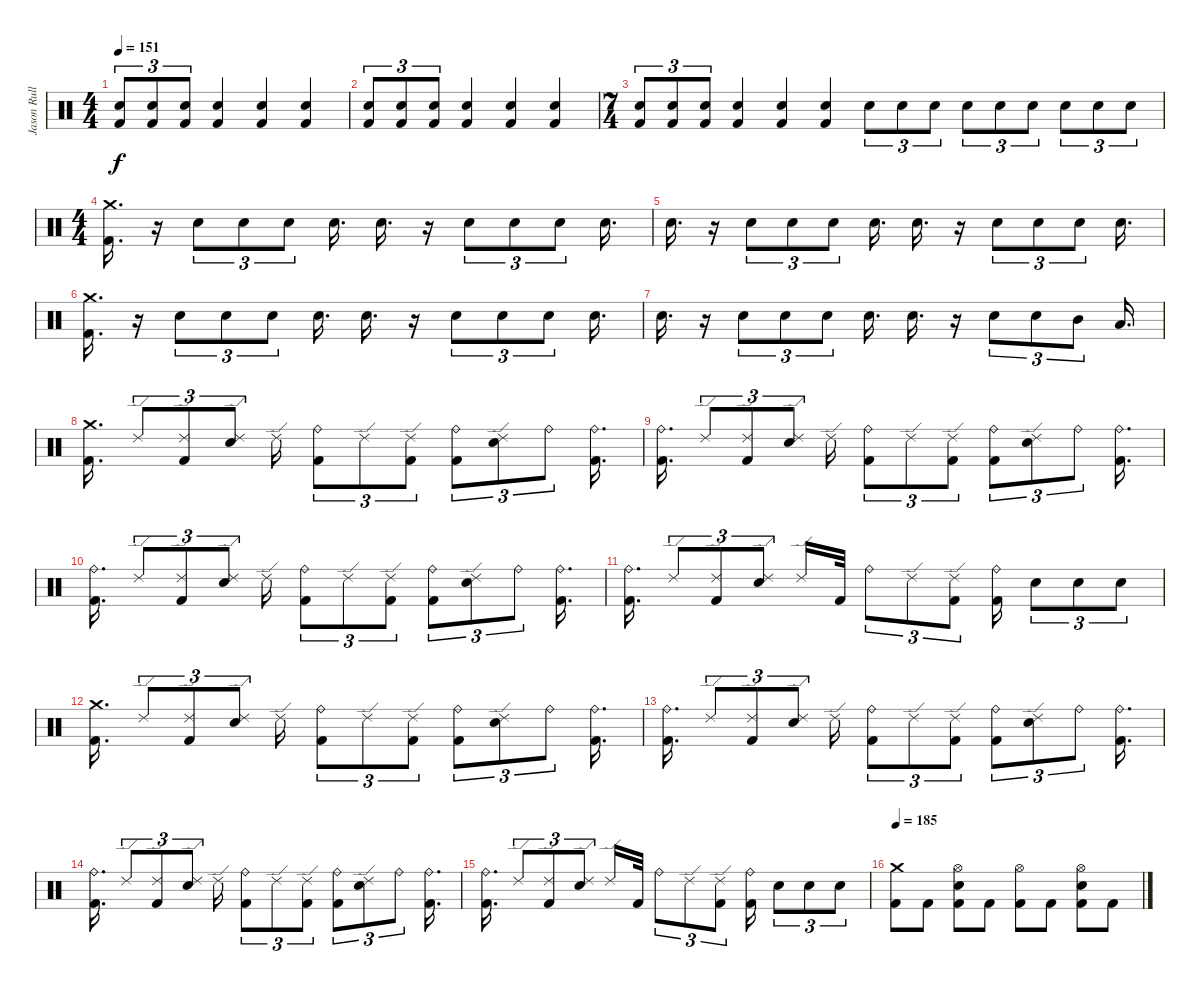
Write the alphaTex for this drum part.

\track ("Jason Rullo" "Jason Rull") {instrument percussion}
\staff {score}
\articulation defaults
\ts (4 4)
\tempo 151
\clef neutral
\ks c
("Kick (hit) 2" "Electric Snare (hit)").8{tu (3 2) dy f} ("Kick (hit) 2" "Electric Snare (hit)").8{tu (3 2)} ("Kick (hit) 2" "Electric Snare (hit)").8{tu (3 2)} ("Kick (hit) 2" "Electric Snare (hit)").4 ("Kick (hit) 2" "Electric Snare (hit)").4 ("Kick (hit) 2" "Electric Snare (hit)").4 |
("Kick (hit) 2" "Electric Snare (hit)").8{tu (3 2)} ("Kick (hit) 2" "Electric Snare (hit)").8{tu (3 2)} ("Kick (hit) 2" "Electric Snare (hit)").8{tu (3 2)} ("Kick (hit) 2" "Electric Snare (hit)").4 ("Kick (hit) 2" "Electric Snare (hit)").4 ("Kick (hit) 2" "Electric Snare (hit)").4 |
\ts (7 4)
("Kick (hit) 2" "Electric Snare (hit)").8{tu (3 2)} ("Kick (hit) 2" "Electric Snare (hit)").8{tu (3 2)} ("Kick (hit) 2" "Electric Snare (hit)").8{tu (3 2)} ("Kick (hit) 2" "Electric Snare (hit)").4 ("Kick (hit) 2" "Electric Snare (hit)").4 ("Kick (hit) 2" "Electric Snare (hit)").4 "Electric Snare (hit)".8{tu (3 2)} "Electric Snare (hit)".8{tu (3 2)} "Electric Snare (hit)".8{tu (3 2)} "Electric Snare (hit)".8{tu (3 2)} "Electric Snare (hit)".8{tu (3 2)} "Electric Snare (hit)".8{tu (3 2)} "Electric Snare (hit)".8{tu (3 2)} "Electric Snare (hit)".8{tu (3 2)} "Electric Snare (hit)".8{tu (3 2)} |
\ts (4 4)
("Crash medium (hit)" "Kick (hit) 2").16{d} r.16 "Electric Snare (hit)".8{tu (3 2)} "Electric Snare (hit)".8{tu (3 2)} "Electric Snare (hit)".8{tu (3 2)} "Electric Snare (hit)".16{d} "Electric Snare (hit)".16{d} r.16 "Electric Snare (hit)".8{tu (3 2)} "Electric Snare (hit)".8{tu (3 2)} "Electric Snare (hit)".8{tu (3 2)} "Electric Snare (hit)".16{d} |
"Electric Snare (hit)".16{d} r.16 "Electric Snare (hit)".8{tu (3 2)} "Electric Snare (hit)".8{tu (3 2)} "Electric Snare (hit)".8{tu (3 2)} "Electric Snare (hit)".16{d} "Electric Snare (hit)".16{d} r.16 "Electric Snare (hit)".8{tu (3 2)} "Electric Snare (hit)".8{tu (3 2)} "Electric Snare (hit)".8{tu (3 2)} "Electric Snare (hit)".16{d} |
("Crash medium (hit)" "Kick (hit) 2").16{d} r.16 "Electric Snare (hit)".8{tu (3 2)} "Electric Snare (hit)".8{tu (3 2)} "Electric Snare (hit)".8{tu (3 2)} "Electric Snare (hit)".16{d} "Electric Snare (hit)".16{d} r.16 "Electric Snare (hit)".8{tu (3 2)} "Electric Snare (hit)".8{tu (3 2)} "Electric Snare (hit)".8{tu (3 2)} "Electric Snare (hit)".16{d} |
"Electric Snare (hit)".16{d} r.16 "Electric Snare (hit)".8{tu (3 2)} "Electric Snare (hit)".8{tu (3 2)} "Electric Snare (hit)".8{tu (3 2)} "Electric Snare (hit)".16{d} "Electric Snare (hit)".16{d} r.16 "Electric Snare (hit)".8{tu (3 2)} "Electric Snare (hit)".8{tu (3 2)} "Mid Tom (hit)".8{tu (3 2)} "Low Tom (hit)".16{d} |
("Crash medium (hit)" "Kick (hit) 2").16{d} "Ride (edge) 2".8{tu (3 2)} ("Ride (edge) 2" "Kick (hit) 2").8{tu (3 2)} ("Ride (edge) 2" "Electric Snare (hit)").8{tu (3 2)} "Ride (edge) 2".16 ("Ride (bell)" "Kick (hit) 2").8{tu (3 2)} "Ride (edge) 2".8{tu (3 2)} ("Ride (edge) 2" "Kick (hit) 2").8{tu (3 2)} ("Ride (bell)" "Kick (hit) 2").8{tu (3 2)} ("Ride (edge) 2" "Electric Snare (hit)").8{tu (3 2)} "Ride (bell)".8{tu (3 2)} ("Ride (bell)" "Kick (hit) 2").16{d} |
("Ride (bell)" "Kick (hit) 2").16{d} "Ride (edge) 2".8{tu (3 2)} ("Ride (edge) 2" "Kick (hit) 2").8{tu (3 2)} ("Ride (edge) 2" "Electric Snare (hit)").8{tu (3 2)} "Ride (edge) 2".16 ("Ride (bell)" "Kick (hit) 2").8{tu (3 2)} "Ride (edge) 2".8{tu (3 2)} ("Ride (edge) 2" "Kick (hit) 2").8{tu (3 2)} ("Ride (bell)" "Kick (hit) 2").8{tu (3 2)} ("Ride (edge) 2" "Electric Snare (hit)").8{tu (3 2)} "Ride (bell)".8{tu (3 2)} ("Ride (bell)" "Kick (hit) 2").16{d} |
("Ride (bell)" "Kick (hit) 2").16{d} "Ride (edge) 2".8{tu (3 2)} ("Ride (edge) 2" "Kick (hit) 2").8{tu (3 2)} ("Ride (edge) 2" "Electric Snare (hit)").8{tu (3 2)} "Ride (edge) 2".16 ("Ride (bell)" "Kick (hit) 2").8{tu (3 2)} "Ride (edge) 2".8{tu (3 2)} ("Ride (edge) 2" "Kick (hit) 2").8{tu (3 2)} ("Ride (bell)" "Kick (hit) 2").8{tu (3 2)} ("Ride (edge) 2" "Electric Snare (hit)").8{tu (3 2)} "Ride (bell)".8{tu (3 2)} ("Ride (bell)" "Kick (hit) 2").16{d} |
("Ride (bell)" "Kick (hit) 2").16{d} "Ride (edge) 2".8{tu (3 2)} ("Ride (edge) 2" "Kick (hit) 2").8{tu (3 2)} ("Ride (edge) 2" "Electric Snare (hit)").8{tu (3 2)} "Ride (edge) 2".16 "Kick (hit) 2".32 "Ride (bell)".8{tu (3 2)} "Ride (edge) 2".8{tu (3 2)} ("Ride (edge) 2" "Kick (hit) 2").8{tu (3 2)} ("Ride (bell)" "Kick (hit) 2").16 "Electric Snare (hit)".8{tu (3 2)} "Electric Snare (hit)".8{tu (3 2)} "Electric Snare (hit)".8{tu (3 2)} |
("Crash medium (hit)" "Kick (hit) 2").16{d} "Ride (edge) 2".8{tu (3 2)} ("Ride (edge) 2" "Kick (hit) 2").8{tu (3 2)} ("Ride (edge) 2" "Electric Snare (hit)").8{tu (3 2)} "Ride (edge) 2".16 ("Ride (bell)" "Kick (hit) 2").8{tu (3 2)} "Ride (edge) 2".8{tu (3 2)} ("Ride (edge) 2" "Kick (hit) 2").8{tu (3 2)} ("Ride (bell)" "Kick (hit) 2").8{tu (3 2)} ("Ride (edge) 2" "Electric Snare (hit)").8{tu (3 2)} "Ride (bell)".8{tu (3 2)} ("Ride (bell)" "Kick (hit) 2").16{d} |
("Ride (bell)" "Kick (hit) 2").16{d} "Ride (edge) 2".8{tu (3 2)} ("Ride (edge) 2" "Kick (hit) 2").8{tu (3 2)} ("Ride (edge) 2" "Electric Snare (hit)").8{tu (3 2)} "Ride (edge) 2".16 ("Ride (bell)" "Kick (hit) 2").8{tu (3 2)} "Ride (edge) 2".8{tu (3 2)} ("Ride (edge) 2" "Kick (hit) 2").8{tu (3 2)} ("Ride (bell)" "Kick (hit) 2").8{tu (3 2)} ("Ride (edge) 2" "Electric Snare (hit)").8{tu (3 2)} "Ride (bell)".8{tu (3 2)} ("Ride (bell)" "Kick (hit) 2").16{d} |
("Ride (bell)" "Kick (hit) 2").16{d} "Ride (edge) 2".8{tu (3 2)} ("Ride (edge) 2" "Kick (hit) 2").8{tu (3 2)} ("Ride (edge) 2" "Electric Snare (hit)").8{tu (3 2)} "Ride (edge) 2".16 ("Ride (bell)" "Kick (hit) 2").8{tu (3 2)} "Ride (edge) 2".8{tu (3 2)} ("Ride (edge) 2" "Kick (hit) 2").8{tu (3 2)} ("Ride (bell)" "Kick (hit) 2").8{tu (3 2)} ("Ride (edge) 2" "Electric Snare (hit)").8{tu (3 2)} "Ride (bell)".8{tu (3 2)} ("Ride (bell)" "Kick (hit) 2").16{d} |
("Ride (bell)" "Kick (hit) 2").16{d} "Ride (edge) 2".8{tu (3 2)} ("Ride (edge) 2" "Kick (hit) 2").8{tu (3 2)} ("Ride (edge) 2" "Electric Snare (hit)").8{tu (3 2)} "Ride (edge) 2".16 "Kick (hit) 2".32 "Ride (bell)".8{tu (3 2)} "Ride (edge) 2".8{tu (3 2)} ("Ride (edge) 2" "Kick (hit) 2").8{tu (3 2)} ("Ride (bell)" "Kick (hit) 2").16 "Electric Snare (hit)".8{tu (3 2)} "Electric Snare (hit)".8{tu (3 2)} "Electric Snare (hit)".8{tu (3 2)} |
\tempo 185
("Crash medium (hit)" "Kick (hit) 2").8 "Kick (hit) 2".8 ("Hi-Hat (open)" "Electric Snare (hit)" "Kick (hit) 2").8 "Kick (hit) 2".8 ("Hi-Hat (open)" "Kick (hit) 2").8 "Kick (hit) 2".8 ("Hi-Hat (open)" "Electric Snare (hit)" "Kick (hit) 2").8 "Kick (hit) 2".8
